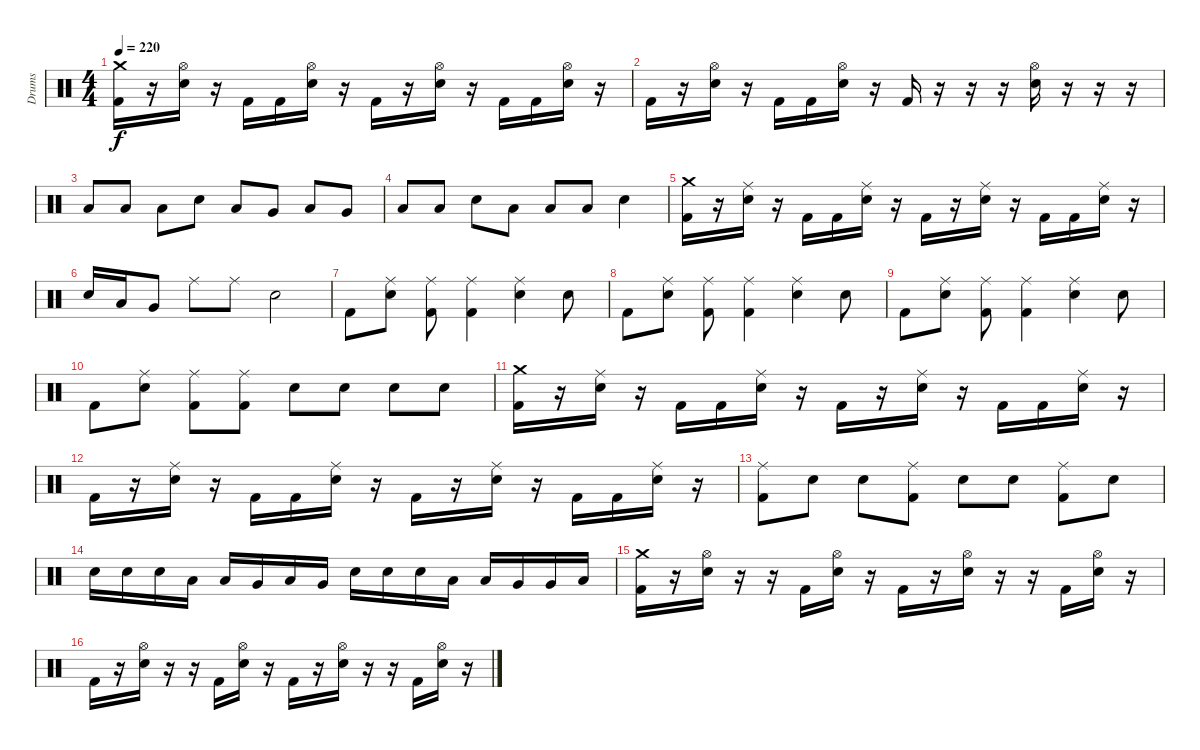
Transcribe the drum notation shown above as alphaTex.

\track ("Drums" "Drums") {instrument percussion}
\staff {score}
\articulation defaults
\ts (4 4)
\tempo 220
\clef neutral
\ks c
("Crash medium (hit)" "Kick (hit) 2").16{dy f} r.16 ("Hi-Hat (open)" "Snare (hit) 2").16 r.16 "Kick (hit) 2".16 "Kick (hit) 2".16 ("Hi-Hat (open)" "Snare (hit) 2").16 r.16 "Kick (hit) 2".16 r.16 ("Hi-Hat (open)" "Snare (hit) 2").16 r.16 "Kick (hit) 2".16 "Kick (hit) 2".16 ("Hi-Hat (open)" "Snare (hit) 2").16 r.16 |
"Kick (hit) 2".16 r.16 ("Hi-Hat (open)" "Snare (hit) 2").16 r.16 "Kick (hit) 2".16 "Kick (hit) 2".16 ("Hi-Hat (open)" "Snare (hit) 2").16 r.16 "Kick (hit) 2".16 r.16 r.16 r.16 ("Hi-Hat (open)" "Snare (hit) 2").16 r.16 r.16 r.16 |
"Low Floor Tom (hit)".8 "Low Floor Tom (hit)".8 "Low Floor Tom (hit)".8 "Snare (hit) 2".8 "Low Floor Tom (hit)".8 "Very Low Tom (hit)".8 "Low Floor Tom (hit)".8 "Very Low Tom (hit)".8 |
"Low Floor Tom (hit)".8 "Low Floor Tom (hit)".8 "Snare (hit) 2".8 "Low Floor Tom (hit)".8 "Low Floor Tom (hit)".8 "Low Floor Tom (hit)".8 "Snare (hit) 2".4 |
("Crash medium (hit)" "Kick (hit) 2").16 r.16 ("Ride (middle)" "Snare (hit) 2").16 r.16 "Kick (hit) 2".16 "Kick (hit) 2".16 ("Ride (middle)" "Snare (hit) 2").16 r.16 "Kick (hit) 2".16 r.16 ("Ride (middle)" "Snare (hit) 2").16 r.16 "Kick (hit) 2".16 "Kick (hit) 2".16 ("Ride (middle)" "Snare (hit) 2").16 r.16 |
"Snare (hit) 2".16 "Low Tom (hit)".16 "Very Low Tom (hit)".8 "Ride (middle)".8 "Ride (middle)".8 "Snare (hit) 2".2 |
"Kick (hit) 2".8 ("Ride (middle)" "Snare (hit) 2").8 ("Ride (middle)" "Kick (hit) 2").8 ("Ride (middle)" "Kick (hit) 2").4 ("Ride (middle)" "Snare (hit) 2").4 "Snare (hit) 2".8 |
"Kick (hit) 2".8 ("Ride (middle)" "Snare (hit) 2").8 ("Ride (middle)" "Kick (hit) 2").8 ("Ride (middle)" "Kick (hit) 2").4 ("Ride (middle)" "Snare (hit) 2").4 "Snare (hit) 2".8 |
"Kick (hit) 2".8 ("Ride (middle)" "Snare (hit) 2").8 ("Ride (middle)" "Kick (hit) 2").8 ("Ride (middle)" "Kick (hit) 2").4 ("Ride (middle)" "Snare (hit) 2").4 "Snare (hit) 2".8 |
"Kick (hit) 2".8 ("Ride (middle)" "Snare (hit) 2").8 ("Ride (middle)" "Kick (hit) 2").8 ("Ride (middle)" "Kick (hit) 2").8 "Snare (hit) 2".8 "Snare (hit) 2".8 "Snare (hit) 2".8 "Snare (hit) 2".8 |
("Crash medium (hit)" "Kick (hit) 2").16 r.16 ("Ride (middle)" "Snare (hit) 2").16 r.16 "Kick (hit) 2".16 "Kick (hit) 2".16 ("Ride (middle)" "Snare (hit) 2").16 r.16 "Kick (hit) 2".16 r.16 ("Ride (middle)" "Snare (hit) 2").16 r.16 "Kick (hit) 2".16 "Kick (hit) 2".16 ("Ride (middle)" "Snare (hit) 2").16 r.16 |
"Kick (hit) 2".16 r.16 ("Ride (middle)" "Snare (hit) 2").16 r.16 "Kick (hit) 2".16 "Kick (hit) 2".16 ("Ride (middle)" "Snare (hit) 2").16 r.16 "Kick (hit) 2".16 r.16 ("Ride (middle)" "Snare (hit) 2").16 r.16 "Kick (hit) 2".16 "Kick (hit) 2".16 ("Ride (middle)" "Snare (hit) 2").16 r.16 |
("Ride (middle)" "Kick (hit) 2").8 "Snare (hit) 2".8 "Snare (hit) 2".8 ("Ride (middle)" "Kick (hit) 2").8 "Snare (hit) 2".8 "Snare (hit) 2".8 ("Ride (middle)" "Kick (hit) 2").8 "Snare (hit) 2".8 |
"Snare (hit) 2".16 "Snare (hit) 2".16 "Snare (hit) 2".16 "Low Tom (hit)".16 "Low Tom (hit)".16 "Very Low Tom (hit)".16 "Low Floor Tom (hit)".16 "Very Low Tom (hit)".16 "Snare (hit) 2".16 "Snare (hit) 2".16 "Snare (hit) 2".16 "Low Tom (hit)".16 "Low Tom (hit)".16 "Very Low Tom (hit)".16 "Very Low Tom (hit)".16 "Low Floor Tom (hit)".16 |
("Crash medium (hit)" "Kick (hit) 2").16 r.16 ("Hi-Hat (open)" "Snare (hit) 2").16 r.16 r.16 "Kick (hit) 2".16 ("Hi-Hat (open)" "Snare (hit) 2").16 r.16 "Kick (hit) 2".16 r.16 ("Hi-Hat (open)" "Snare (hit) 2").16 r.16 r.16 "Kick (hit) 2".16 ("Hi-Hat (open)" "Snare (hit) 2").16 r.16 |
"Kick (hit) 2".16 r.16 ("Hi-Hat (open)" "Snare (hit) 2").16 r.16 r.16 "Kick (hit) 2".16 ("Hi-Hat (open)" "Snare (hit) 2").16 r.16 "Kick (hit) 2".16 r.16 ("Hi-Hat (open)" "Snare (hit) 2").16 r.16 r.16 "Kick (hit) 2".16 ("Hi-Hat (open)" "Snare (hit) 2").16 r.16
